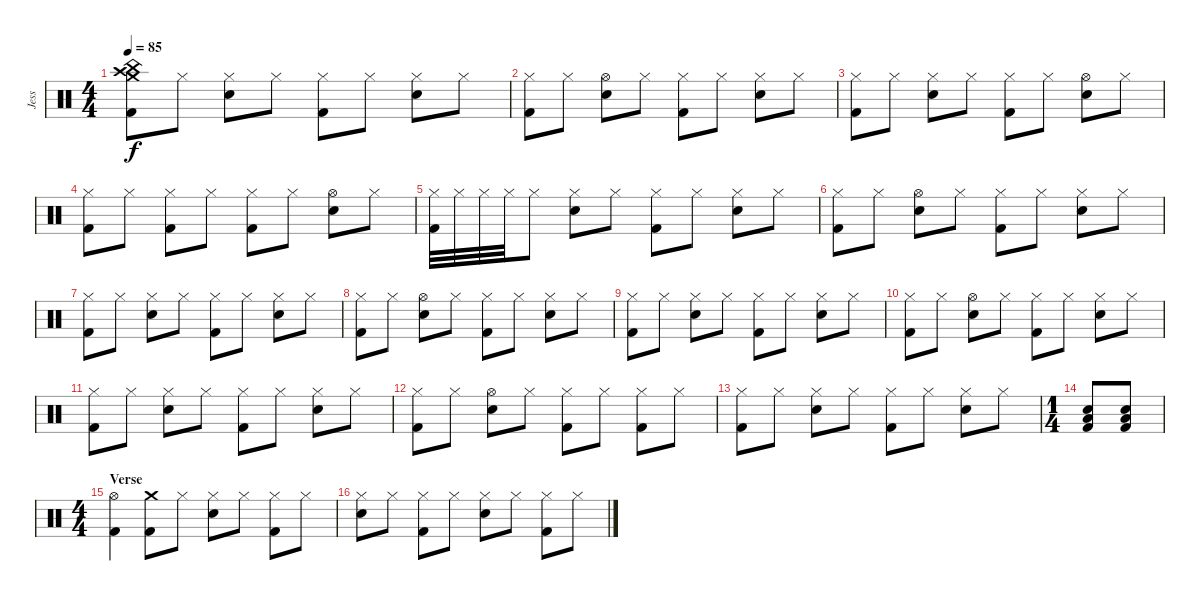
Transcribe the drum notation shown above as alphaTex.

\track ("Jess" "Jess") {instrument percussion}
\staff {score}
\articulation defaults
\ts (4 4)
\tempo 85
\clef neutral
\ks c
("Crash medium (hit)" "Crash high (hit)" "China (hit)" "Kick (hit) 2").8{dy f} "Hi-Hat (closed)".8 ("Hi-Hat (closed)" "Snare (hit) 2").8 "Hi-Hat (closed)".8 ("Hi-Hat (closed)" "Kick (hit) 2").8 "Hi-Hat (closed)".8 ("Hi-Hat (closed)" "Snare (hit) 2").8 "Hi-Hat (closed)".8 |
("Hi-Hat (closed)" "Kick (hit) 2").8 "Hi-Hat (closed)".8 ("Hi-Hat (open)" "Snare (hit) 2").8 "Hi-Hat (closed)".8 ("Hi-Hat (closed)" "Kick (hit) 2").8 "Hi-Hat (closed)".8 ("Hi-Hat (closed)" "Snare (hit) 2").8 "Hi-Hat (closed)".8 |
("Hi-Hat (closed)" "Kick (hit) 2").8 "Hi-Hat (closed)".8 ("Hi-Hat (closed)" "Snare (hit) 2").8 "Hi-Hat (closed)".8 ("Hi-Hat (closed)" "Kick (hit) 2").8 "Hi-Hat (closed)".8 ("Hi-Hat (open)" "Snare (hit) 2").8 "Hi-Hat (closed)".8 |
("Hi-Hat (closed)" "Kick (hit) 2").8 "Hi-Hat (closed)".8 ("Hi-Hat (closed)" "Kick (hit) 2").8 "Hi-Hat (closed)".8 ("Hi-Hat (closed)" "Kick (hit) 2").8 "Hi-Hat (closed)".8 ("Hi-Hat (open)" "Snare (hit) 2").8 "Hi-Hat (closed)".8 |
("Hi-Hat (closed)" "Kick (hit) 2").32 "Hi-Hat (closed)".32 "Hi-Hat (closed)".32 "Hi-Hat (closed)".32 "Hi-Hat (closed)".8 ("Hi-Hat (closed)" "Snare (hit) 2").8 "Hi-Hat (closed)".8 ("Hi-Hat (closed)" "Kick (hit) 2").8 "Hi-Hat (closed)".8 ("Hi-Hat (closed)" "Snare (hit) 2").8 "Hi-Hat (closed)".8 |
("Hi-Hat (closed)" "Kick (hit) 2").8 "Hi-Hat (closed)".8 ("Hi-Hat (open)" "Snare (hit) 2").8 "Hi-Hat (closed)".8 ("Hi-Hat (closed)" "Kick (hit) 2").8 "Hi-Hat (closed)".8 ("Hi-Hat (closed)" "Snare (hit) 2").8 "Hi-Hat (closed)".8 |
("Hi-Hat (closed)" "Kick (hit) 2").8 "Hi-Hat (closed)".8 ("Hi-Hat (closed)" "Snare (hit) 2").8 "Hi-Hat (closed)".8 ("Hi-Hat (closed)" "Kick (hit) 2").8 "Hi-Hat (closed)".8 ("Hi-Hat (closed)" "Snare (hit) 2").8 "Hi-Hat (closed)".8 |
("Hi-Hat (closed)" "Kick (hit) 2").8 "Hi-Hat (closed)".8 ("Hi-Hat (open)" "Snare (hit) 2").8 "Hi-Hat (closed)".8 ("Hi-Hat (closed)" "Kick (hit) 2").8 "Hi-Hat (closed)".8 ("Hi-Hat (closed)" "Snare (hit) 2").8 "Hi-Hat (closed)".8 |
("Hi-Hat (closed)" "Kick (hit) 2").8 "Hi-Hat (closed)".8 ("Hi-Hat (closed)" "Snare (hit) 2").8 "Hi-Hat (closed)".8 ("Hi-Hat (closed)" "Kick (hit) 2").8 "Hi-Hat (closed)".8 ("Hi-Hat (closed)" "Snare (hit) 2").8 "Hi-Hat (closed)".8 |
("Hi-Hat (closed)" "Kick (hit) 2").8 "Hi-Hat (closed)".8 ("Hi-Hat (open)" "Snare (hit) 2").8 "Hi-Hat (closed)".8 ("Hi-Hat (closed)" "Kick (hit) 2").8 "Hi-Hat (closed)".8 ("Hi-Hat (closed)" "Snare (hit) 2").8 "Hi-Hat (closed)".8 |
("Hi-Hat (closed)" "Kick (hit) 2").8 "Hi-Hat (closed)".8 ("Hi-Hat (closed)" "Snare (hit) 2").8 "Hi-Hat (closed)".8 ("Hi-Hat (closed)" "Kick (hit) 2").8 "Hi-Hat (closed)".8 ("Hi-Hat (closed)" "Snare (hit) 2").8 "Hi-Hat (closed)".8 |
("Hi-Hat (closed)" "Kick (hit) 2").8 "Hi-Hat (closed)".8 ("Hi-Hat (open)" "Snare (hit) 2").8 "Hi-Hat (closed)".8 ("Hi-Hat (closed)" "Kick (hit) 2").8 "Hi-Hat (closed)".8 ("Hi-Hat (closed)" "Kick (hit) 2").8 "Hi-Hat (closed)".8 |
("Hi-Hat (closed)" "Kick (hit) 2").8 "Hi-Hat (closed)".8 ("Hi-Hat (closed)" "Snare (hit) 2").8 "Hi-Hat (closed)".8 ("Hi-Hat (closed)" "Kick (hit) 2").8 "Hi-Hat (closed)".8 ("Hi-Hat (closed)" "Snare (hit) 2").8 "Hi-Hat (closed)".8 |
\ts (1 4)
("Low Floor Tom (hit)" "Snare (hit) 2" "Kick (hit) 2").8 ("Low Floor Tom (hit)" "Snare (hit) 2" "Kick (hit) 2").8 |
\ts (4 4)
\section ("" "Verse")
("Hi-Hat (open)" "Kick (hit) 2").4 ("Crash medium (hit)" "Kick (hit) 2").8 "Hi-Hat (closed)".8 ("Hi-Hat (closed)" "Snare (hit) 2").8 "Hi-Hat (closed)".8 ("Hi-Hat (closed)" "Kick (hit) 2").8 "Hi-Hat (closed)".8 |
("Hi-Hat (closed)" "Snare (hit) 2").8 "Hi-Hat (closed)".8 ("Hi-Hat (closed)" "Kick (hit) 2").8 "Hi-Hat (closed)".8 ("Hi-Hat (closed)" "Snare (hit) 2").8 "Hi-Hat (closed)".8 ("Hi-Hat (closed)" "Kick (hit) 2").8 "Hi-Hat (closed)".8
